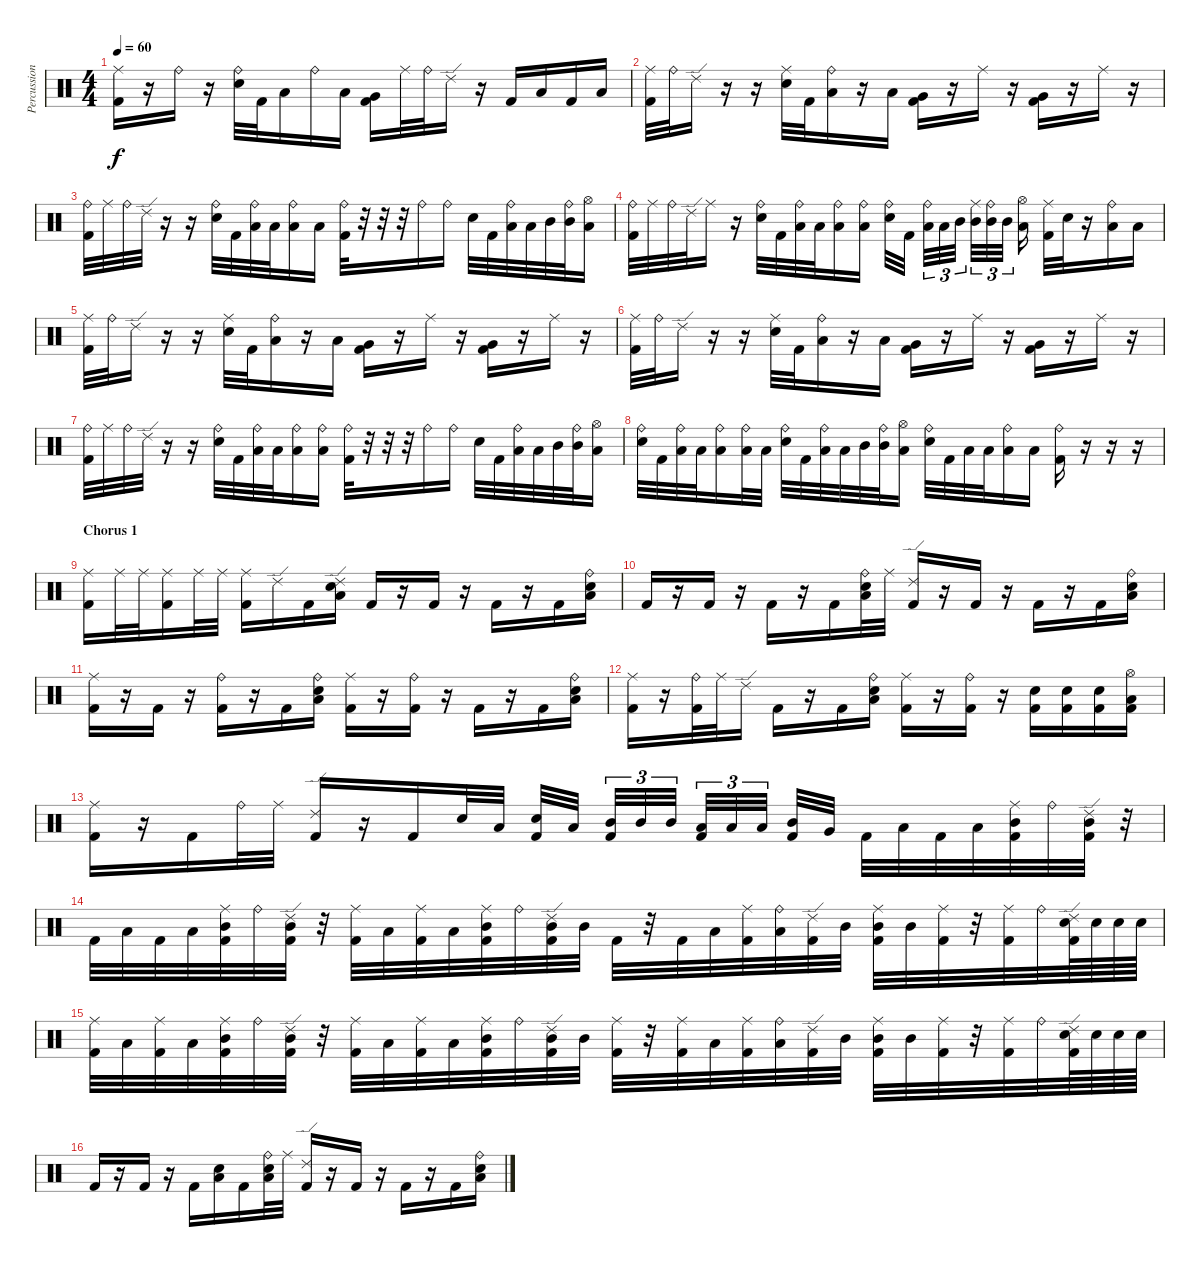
\track ("Percussion" "Percussion") {instrument percussion}
\staff {score}
\articulation defaults
\ts (4 4)
\tempo 60
\clef neutral
\ks c
("Ride (middle)" "Kick (hit) 2").16{dy f} r.16 "Ride (bell)".16 r.16 ("Ride (bell)" "Electric Snare (hit)").32 "Kick (hit) 2".32 "Low Tom (hit)".16 "Ride (bell)".16 "Low Tom (hit)".16 ("Very Low Tom (hit)" "Kick (hit) 2").16 "Ride (middle)".32 "Ride (bell)".32 "Ride (edge) 2".16 r.16 "Kick (hit) 2".16 "Low Tom (hit)".16 "Kick (hit) 2".16 "Low Tom (hit)".16 |
("Ride (middle)" "Kick (hit) 2").32 "Ride (bell)".32 "Ride (edge) 2".16 r.16 r.16 ("Ride (middle)" "Electric Snare (hit)").32 "Kick (hit) 2".32 ("Ride (bell)" "Low Tom (hit)").16 r.16 "Low Tom (hit)".16 ("Very Low Tom (hit)" "Kick (hit) 2").16 r.16 "Ride (middle)".16 r.16 ("Very Low Tom (hit)" "Kick (hit) 2").16 r.16 "Ride (middle)".16 r.16 |
("Ride (bell)" "Kick (hit) 2").32 "Ride (middle)".32 "Ride (bell)".32 "Ride (edge) 2".32 r.16 r.16 ("Ride (bell)" "Electric Snare (hit)").32 "Kick (hit) 2".32 ("Ride (bell)" "Low Tom (hit)").32 "Low Tom (hit)".32 ("Ride (bell)" "Low Tom (hit)").16 "Low Tom (hit)".16 ("Ride (bell)" "Kick (hit) 2").32 r.32 r.32 r.32 "Ride (bell)".16 "Ride (bell)".16 "Electric Snare (hit)".32 "Kick (hit) 2".32 ("Ride (bell)" "Low Tom (hit)").32 "Low Tom (hit)".32 "Mid Tom (hit)".32 ("Ride (bell)" "Mid Tom (hit)").32 ("Hi-Hat (open)" "Low Tom (hit)").16 |
("Ride (bell)" "Kick (hit) 2").32 "Ride (middle)".32 "Ride (bell)".32 "Ride (edge) 2".32 "Ride (middle)".16 r.16 ("Ride (bell)" "Electric Snare (hit)").32 "Kick (hit) 2".32 ("Ride (bell)" "Low Tom (hit)").32 "Low Tom (hit)".32 ("Ride (bell)" "Low Tom (hit)").16 ("Ride (bell)" "Low Tom (hit)").16 ("Ride (bell)" "Electric Snare (hit)").32 "Kick (hit) 2".32 ("Ride (bell)" "Low Tom (hit)").32{tu (3 2)} "Low Tom (hit)".32{tu (3 2)} "Mid Tom (hit)".32{tu (3 2)} ("Ride (middle)" "Mid Tom (hit)").32{tu (3 2)} ("Ride (bell)" "Mid Tom (hit)").32{tu (3 2)} "Mid Tom (hit)".32{tu (3 2)} ("Hi-Hat (open)" "Low Tom (hit)").16 ("Ride (middle)" "Kick (hit) 2").32 "Electric Snare (hit)".32 r.16 ("Ride (bell)" "Low Tom (hit)").16 "Low Tom (hit)".16 |
("Ride (middle)" "Kick (hit) 2").32 "Ride (bell)".32 "Ride (edge) 2".16 r.16 r.16 ("Ride (middle)" "Electric Snare (hit)").32 "Kick (hit) 2".32 ("Ride (bell)" "Low Tom (hit)").16 r.16 "Low Tom (hit)".16 ("Very Low Tom (hit)" "Kick (hit) 2").16 r.16 "Ride (middle)".16 r.16 ("Very Low Tom (hit)" "Kick (hit) 2").16 r.16 "Ride (middle)".16 r.16 |
("Ride (middle)" "Kick (hit) 2").32 "Ride (bell)".32 "Ride (edge) 2".16 r.16 r.16 ("Ride (middle)" "Electric Snare (hit)").32 "Kick (hit) 2".32 ("Ride (bell)" "Low Tom (hit)").16 r.16 "Low Tom (hit)".16 ("Very Low Tom (hit)" "Kick (hit) 2").16 r.16 "Ride (middle)".16 r.16 ("Very Low Tom (hit)" "Kick (hit) 2").16 r.16 "Ride (middle)".16 r.16 |
("Ride (bell)" "Kick (hit) 2").32 "Ride (middle)".32 "Ride (bell)".32 "Ride (edge) 2".32 r.16 r.16 ("Ride (bell)" "Electric Snare (hit)").32 "Kick (hit) 2".32 ("Ride (bell)" "Low Tom (hit)").32 "Low Tom (hit)".32 ("Ride (bell)" "Low Tom (hit)").16 ("Ride (bell)" "Low Tom (hit)").16 ("Ride (bell)" "Kick (hit) 2").32 r.32 r.32 r.32 "Ride (bell)".16 "Ride (bell)".16 "Electric Snare (hit)".32 "Kick (hit) 2".32 ("Ride (bell)" "Low Tom (hit)").32 "Low Tom (hit)".32 "Mid Tom (hit)".32 ("Ride (bell)" "Mid Tom (hit)").32 ("Hi-Hat (open)" "Low Tom (hit)").16 |
("Ride (bell)" "Electric Snare (hit)").32 "Kick (hit) 2".32 ("Ride (bell)" "Low Tom (hit)").32 "Low Tom (hit)".32 ("Ride (bell)" "Low Tom (hit)").16 ("Ride (bell)" "Low Tom (hit)").32 "Low Tom (hit)".32 ("Ride (bell)" "Electric Snare (hit)").32 "Kick (hit) 2".32 ("Ride (bell)" "Low Tom (hit)").32 "Low Tom (hit)".32 "Mid Tom (hit)".32 ("Ride (bell)" "Mid Tom (hit)").32 ("Hi-Hat (open)" "Low Tom (hit)").16 ("Ride (bell)" "Electric Snare (hit)").32 "Kick (hit) 2".32 "Low Tom (hit)".32 "Low Tom (hit)".32 ("Ride (bell)" "Low Tom (hit)").16 "Low Tom (hit)".16 ("Ride (bell)" "Kick (hit) 2").16 r.16 r.16 r.16 |
\section ("" "Chorus 1")
("Ride (middle)" "Kick (hit) 2").16 "Ride (middle)".32 "Ride (middle)".32 ("Ride (middle)" "Kick (hit) 2").16 "Ride (middle)".32 "Ride (middle)".32 ("Ride (middle)" "Kick (hit) 2").16 "Ride (edge) 2".16 "Kick (hit) 2".16 ("Ride (edge) 2" "Low Tom (hit)" "Electric Snare (hit)").16 "Kick (hit) 2".16 r.16 "Kick (hit) 2".16 r.16 "Kick (hit) 2".16 r.16 "Kick (hit) 2".16 ("Ride (bell)" "Low Tom (hit)" "Electric Snare (hit)").16 |
"Kick (hit) 2".16 r.16 "Kick (hit) 2".16 r.16 "Kick (hit) 2".16 r.16 "Kick (hit) 2".16 ("Ride (bell)" "Low Tom (hit)" "Electric Snare (hit)").32 "Ride (middle)".32 ("Ride (edge) 2" "Kick (hit) 2").16 r.16 "Kick (hit) 2".16 r.16 "Kick (hit) 2".16 r.16 "Kick (hit) 2".16 ("Ride (bell)" "Low Tom (hit)" "Electric Snare (hit)").16 |
("Ride (middle)" "Kick (hit) 2").16 r.16 "Kick (hit) 2".16 r.16 ("Ride (bell)" "Kick (hit) 2").16 r.16 "Kick (hit) 2".16 ("Ride (bell)" "Low Tom (hit)" "Electric Snare (hit)").16 ("Ride (middle)" "Kick (hit) 2").16 r.16 ("Ride (bell)" "Kick (hit) 2").16 r.16 "Kick (hit) 2".16 r.16 "Kick (hit) 2".16 ("Ride (bell)" "Low Tom (hit)" "Electric Snare (hit)").16 |
("Ride (middle)" "Kick (hit) 2").16 r.16 ("Ride (bell)" "Kick (hit) 2").32 "Ride (middle)".32 "Ride (edge) 2".16 "Kick (hit) 2".16 r.16 "Kick (hit) 2".16 ("Ride (bell)" "Low Tom (hit)" "Electric Snare (hit)").16 ("Ride (middle)" "Kick (hit) 2").16 r.16 ("Ride (bell)" "Kick (hit) 2").16 r.16 ("Electric Snare (hit)" "Kick (hit) 2").16 ("Electric Snare (hit)" "Kick (hit) 2").16 ("Electric Snare (hit)" "Kick (hit) 2").16 ("Hi-Hat (open)" "Low Tom (hit)" "Kick (hit) 2").16 |
("Ride (middle)" "Kick (hit) 2").16 r.16 "Kick (hit) 2".16 "Ride (bell)".32 "Ride (middle)".32 ("Ride (edge) 2" "Kick (hit) 2").16 r.16 "Kick (hit) 2".16 "Electric Snare (hit)".32 "Low Tom (hit)".32 ("Electric Snare (hit)" "Kick (hit) 2").32 "Low Tom (hit)".32 ("Mid Tom (hit)" "Kick (hit) 2").32{tu (3 2)} "Mid Tom (hit)".32{tu (3 2)} "Mid Tom (hit)".32{tu (3 2)} ("Low Tom (hit)" "Kick (hit) 2").32{tu (3 2)} "Low Tom (hit)".32{tu (3 2)} "Low Tom (hit)".32{tu (3 2)} ("Mid Tom (hit)" "Kick (hit) 2").32 "Very Low Tom (hit)".32 "Kick (hit) 2".32 "Low Tom (hit)".32 "Kick (hit) 2".32 "Low Tom (hit)".32 ("Ride (middle)" "Mid Tom (hit)" "Kick (hit) 2").32 "Ride (bell)".32 ("Ride (edge) 2" "Mid Tom (hit)" "Kick (hit) 2").32 r.32 |
"Kick (hit) 2".32 "Low Tom (hit)".32 "Kick (hit) 2".32 "Low Tom (hit)".32 ("Ride (middle)" "Mid Tom (hit)" "Kick (hit) 2").32 "Ride (bell)".32 ("Ride (edge) 2" "Mid Tom (hit)" "Kick (hit) 2").32 r.32 ("Ride (middle)" "Kick (hit) 2").32 "Low Tom (hit)".32 ("Ride (middle)" "Kick (hit) 2").32 "Low Tom (hit)".32 ("Ride (middle)" "Mid Tom (hit)" "Kick (hit) 2").32 "Ride (bell)".32 ("Ride (edge) 2" "Mid Tom (hit)" "Kick (hit) 2").32 "Mid Tom (hit)".32 "Kick (hit) 2".32 r.32 "Kick (hit) 2".32 "Low Tom (hit)".32 ("Ride (middle)" "Kick (hit) 2").32 ("Ride (bell)" "Low Tom (hit)").32 ("Ride (edge) 2" "Kick (hit) 2").32 "Mid Tom (hit)".32 ("Ride (middle)" "Mid Tom (hit)" "Kick (hit) 2").32 "Mid Tom (hit)".32 ("Ride (middle)" "Kick (hit) 2").32 r.32 ("Ride (middle)" "Kick (hit) 2").32 "Ride (bell)".32 ("Ride (edge) 2" "Electric Snare (hit)" "Kick (hit) 2").64 "Electric Snare (hit)".64 "Electric Snare (hit)".64 "Electric Snare (hit)".64 |
("Ride (middle)" "Kick (hit) 2").32 "Low Tom (hit)".32 ("Ride (middle)" "Kick (hit) 2").32 "Low Tom (hit)".32 ("Ride (middle)" "Mid Tom (hit)" "Kick (hit) 2").32 "Ride (bell)".32 ("Ride (edge) 2" "Mid Tom (hit)" "Kick (hit) 2").32 r.32 ("Ride (middle)" "Kick (hit) 2").32 "Low Tom (hit)".32 ("Ride (middle)" "Kick (hit) 2").32 "Low Tom (hit)".32 ("Ride (middle)" "Mid Tom (hit)" "Kick (hit) 2").32 "Ride (bell)".32 ("Ride (edge) 2" "Mid Tom (hit)" "Kick (hit) 2").32 "Mid Tom (hit)".32 ("Ride (middle)" "Kick (hit) 2").32 r.32 ("Ride (middle)" "Kick (hit) 2").32 "Low Tom (hit)".32 ("Ride (middle)" "Kick (hit) 2").32 ("Ride (bell)" "Low Tom (hit)").32 ("Ride (edge) 2" "Kick (hit) 2").32 "Mid Tom (hit)".32 ("Ride (middle)" "Mid Tom (hit)" "Kick (hit) 2").32 "Mid Tom (hit)".32 ("Ride (middle)" "Kick (hit) 2").32 r.32 ("Ride (middle)" "Kick (hit) 2").32 "Ride (bell)".32 ("Ride (edge) 2" "Electric Snare (hit)" "Kick (hit) 2").64 "Electric Snare (hit)".64 "Electric Snare (hit)".64 "Electric Snare (hit)".64 |
"Kick (hit) 2".16 r.16 "Kick (hit) 2".16 r.16 "Kick (hit) 2".16 ("Low Tom (hit)" "Electric Snare (hit)").16 "Kick (hit) 2".16 ("Ride (bell)" "Low Tom (hit)" "Electric Snare (hit)").32 "Ride (middle)".32 ("Ride (edge) 2" "Kick (hit) 2").16 r.16 "Kick (hit) 2".16 r.16 "Kick (hit) 2".16 r.16 "Kick (hit) 2".16 ("Ride (bell)" "Low Tom (hit)" "Electric Snare (hit)").16
